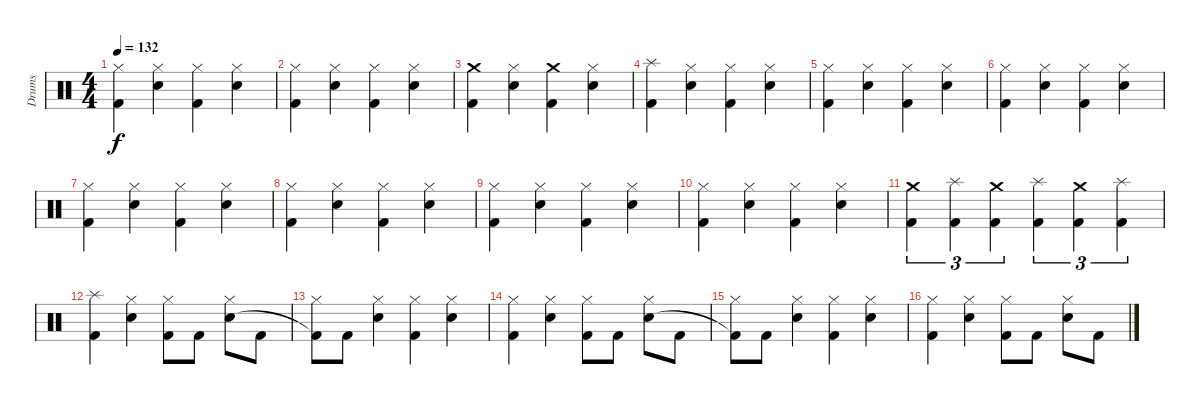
\track ("Drums" "Drums") {instrument percussion}
\staff {score}
\articulation defaults
\ts (4 4)
\tempo 132
\clef neutral
\ks c
("Hi-Hat (closed)" "Kick (hit) 2").4{dy f} ("Hi-Hat (closed)" "Snare (hit) 2").4 ("Hi-Hat (closed)" "Kick (hit) 2").4 ("Hi-Hat (closed)" "Snare (hit) 2").4 |
("Hi-Hat (closed)" "Kick (hit) 2").4 ("Hi-Hat (closed)" "Snare (hit) 2").4 ("Hi-Hat (closed)" "Kick (hit) 2").4 ("Hi-Hat (closed)" "Snare (hit) 2").4 |
("Crash medium (hit)" "Kick (hit) 2").4 ("Hi-Hat (closed)" "Snare (hit) 2").4 ("Crash medium (hit)" "Kick (hit) 2").4 ("Hi-Hat (closed)" "Snare (hit) 2").4 |
("Splash (hit)" "Kick (hit) 2").4 ("Hi-Hat (closed)" "Snare (hit) 2").4 ("Hi-Hat (closed)" "Kick (hit) 2").4 ("Hi-Hat (closed)" "Snare (hit) 2").4 |
("Hi-Hat (closed)" "Kick (hit) 2").4 ("Hi-Hat (closed)" "Snare (hit) 2").4 ("Hi-Hat (closed)" "Kick (hit) 2").4 ("Hi-Hat (closed)" "Snare (hit) 2").4 |
("Hi-Hat (closed)" "Kick (hit) 2").4 ("Hi-Hat (closed)" "Snare (hit) 2").4 ("Hi-Hat (closed)" "Kick (hit) 2").4 ("Hi-Hat (closed)" "Snare (hit) 2").4 |
("Hi-Hat (closed)" "Kick (hit) 2").4 ("Hi-Hat (closed)" "Snare (hit) 2").4 ("Hi-Hat (closed)" "Kick (hit) 2").4 ("Hi-Hat (closed)" "Snare (hit) 2").4 |
("Hi-Hat (closed)" "Kick (hit) 2").4 ("Hi-Hat (closed)" "Snare (hit) 2").4 ("Hi-Hat (closed)" "Kick (hit) 2").4 ("Hi-Hat (closed)" "Snare (hit) 2").4 |
("Hi-Hat (closed)" "Kick (hit) 2").4 ("Hi-Hat (closed)" "Snare (hit) 2").4 ("Hi-Hat (closed)" "Kick (hit) 2").4 ("Hi-Hat (closed)" "Snare (hit) 2").4 |
("Hi-Hat (closed)" "Kick (hit) 2").4 ("Hi-Hat (closed)" "Snare (hit) 2").4 ("Hi-Hat (closed)" "Kick (hit) 2").4 ("Hi-Hat (closed)" "Snare (hit) 2").4 |
("Crash medium (hit)" "Kick (hit) 2").4{tu (3 2)} ("Splash (hit)" "Kick (hit) 2").4{tu (3 2)} ("Crash medium (hit)" "Kick (hit) 2").4{tu (3 2)} ("Splash (hit)" "Kick (hit) 2").4{tu (3 2)} ("Crash medium (hit)" "Kick (hit) 2").4{tu (3 2)} ("Splash (hit)" "Kick (hit) 2").4{tu (3 2)} |
("Splash (hit)" "Kick (hit) 2").4 ("Hi-Hat (closed)" "Snare (hit) 2").4 ("Hi-Hat (closed)" "Kick (hit) 2").8 "Kick (hit) 2".8 ("Hi-Hat (closed)" "Snare (hit) 2").8 "Kick (hit) 2".8 |
("Hi-Hat (closed)" "Kick (hit) 2"{t}).8 "Kick (hit) 2".8 ("Hi-Hat (closed)" "Snare (hit) 2").4 ("Hi-Hat (closed)" "Kick (hit) 2").4 ("Hi-Hat (closed)" "Snare (hit) 2").4 |
("Hi-Hat (closed)" "Kick (hit) 2").4 ("Hi-Hat (closed)" "Snare (hit) 2").4 ("Hi-Hat (closed)" "Kick (hit) 2").8 "Kick (hit) 2".8 ("Hi-Hat (closed)" "Snare (hit) 2").8 "Kick (hit) 2".8 |
("Hi-Hat (closed)" "Kick (hit) 2"{t}).8 "Kick (hit) 2".8 ("Hi-Hat (closed)" "Snare (hit) 2").4 ("Hi-Hat (closed)" "Kick (hit) 2").4 ("Hi-Hat (closed)" "Snare (hit) 2").4 |
("Hi-Hat (closed)" "Kick (hit) 2").4 ("Hi-Hat (closed)" "Snare (hit) 2").4 ("Hi-Hat (closed)" "Kick (hit) 2").8 "Kick (hit) 2".8 ("Hi-Hat (closed)" "Snare (hit) 2").8 "Kick (hit) 2".8
